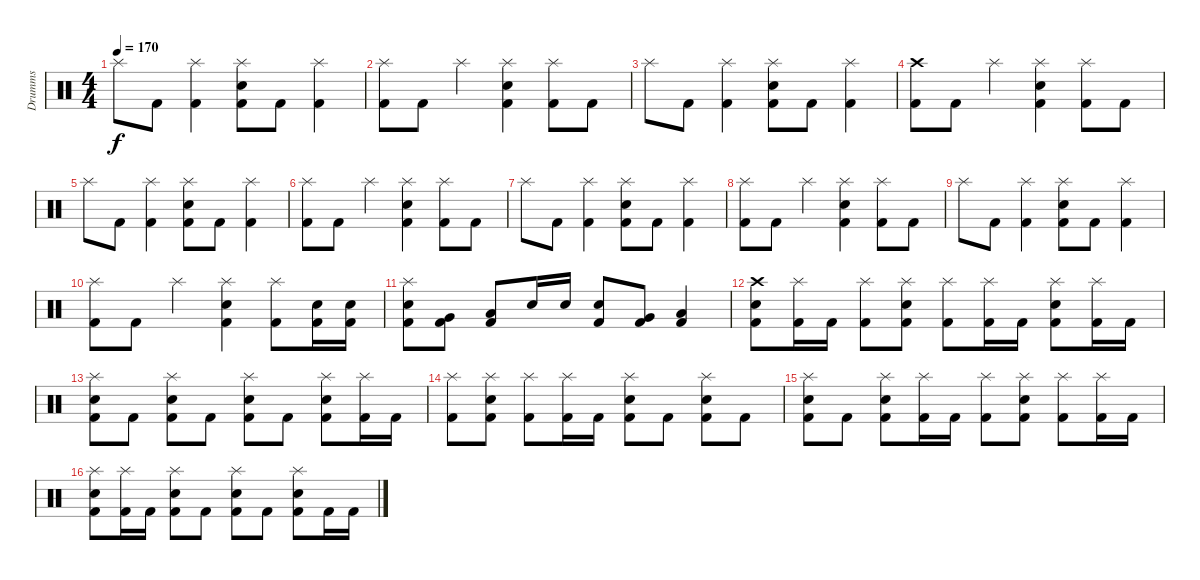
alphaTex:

\track ("Drumms" "Drumms") {instrument percussion}
\staff {score}
\articulation defaults
\ts (4 4)
\tempo 170
\clef neutral
\ks c "Splash (hit)".8{dy f} "Kick (hit) 2".8
("Kick (hit) 2" "Splash (hit)").4 ("Kick (hit) 2" "Snare (hit) 2" "Splash (hit)").8 "Kick (hit) 2".8 ("Kick (hit) 2" "Splash (hit)").4 |
("Kick (hit) 2" "Splash (hit)").8 "Kick (hit) 2".8 "Splash (hit)".4 ("Kick (hit) 2" "Snare (hit) 2" "Splash (hit)").4 ("Kick (hit) 2" "Splash (hit)").8 "Kick (hit) 2".8 |
"Splash (hit)".8 "Kick (hit) 2".8 ("Kick (hit) 2" "Splash (hit)").4 ("Kick (hit) 2" "Snare (hit) 2" "Splash (hit)").8 "Kick (hit) 2".8 ("Kick (hit) 2" "Splash (hit)").4 |
("Kick (hit) 2" "Crash high (hit)").8 "Kick (hit) 2".8 "Splash (hit)".4 ("Kick (hit) 2" "Snare (hit) 2" "Splash (hit)").4 ("Kick (hit) 2" "Splash (hit)").8 "Kick (hit) 2".8 |
"Splash (hit)".8 "Kick (hit) 2".8 ("Kick (hit) 2" "Splash (hit)").4 ("Kick (hit) 2" "Snare (hit) 2" "Splash (hit)").8 "Kick (hit) 2".8 ("Kick (hit) 2" "Splash (hit)").4 |
("Kick (hit) 2" "Splash (hit)").8 "Kick (hit) 2".8 "Splash (hit)".4 ("Kick (hit) 2" "Snare (hit) 2" "Splash (hit)").4 ("Kick (hit) 2" "Splash (hit)").8 "Kick (hit) 2".8 |
"Splash (hit)".8 "Kick (hit) 2".8 ("Kick (hit) 2" "Splash (hit)").4 ("Kick (hit) 2" "Snare (hit) 2" "Splash (hit)").8 "Kick (hit) 2".8 ("Kick (hit) 2" "Splash (hit)").4 |
("Kick (hit) 2" "Splash (hit)").8 "Kick (hit) 2".8 "Splash (hit)".4 ("Kick (hit) 2" "Snare (hit) 2" "Splash (hit)").4 ("Kick (hit) 2" "Splash (hit)").8 "Kick (hit) 2".8 |
"Splash (hit)".8 "Kick (hit) 2".8 ("Kick (hit) 2" "Splash (hit)").4 ("Kick (hit) 2" "Snare (hit) 2" "Splash (hit)").8 "Kick (hit) 2".8 ("Kick (hit) 2" "Splash (hit)").4 |
("Kick (hit) 2" "Splash (hit)").8 "Kick (hit) 2".8 "Splash (hit)".4 ("Kick (hit) 2" "Snare (hit) 2" "Splash (hit)").4 ("Kick (hit) 2" "Splash (hit)").8 ("Kick (hit) 2" "Snare (hit) 2").16 ("Kick (hit) 2" "Snare (hit) 2").16 |
("Kick (hit) 2" "Snare (hit) 2" "Splash (hit)").8 ("Kick (hit) 2" "Very Low Tom (hit)").8 ("Kick (hit) 2" "Low Tom (hit)").8 "Snare (hit) 2".16 "Snare (hit) 2".16 ("Kick (hit) 2" "Snare (hit) 2").8 ("Kick (hit) 2" "Very Low Tom (hit)").8 ("Kick (hit) 2" "Low Tom (hit)").4 |
("Kick (hit) 2" "Snare (hit) 2" "Crash high (hit)").8 ("Kick (hit) 2" "Splash (hit)").16 "Kick (hit) 2".16 ("Kick (hit) 2" "Splash (hit)").8 ("Kick (hit) 2" "Snare (hit) 2" "Splash (hit)").8 ("Kick (hit) 2" "Splash (hit)").8 ("Kick (hit) 2" "Splash (hit)").16 "Kick (hit) 2".16 ("Kick (hit) 2" "Snare (hit) 2" "Splash (hit)").8 ("Kick (hit) 2" "Splash (hit)").16 "Kick (hit) 2".16 |
("Kick (hit) 2" "Snare (hit) 2" "Splash (hit)").8 "Kick (hit) 2".8 ("Kick (hit) 2" "Snare (hit) 2" "Splash (hit)").8 "Kick (hit) 2".8 ("Kick (hit) 2" "Snare (hit) 2" "Splash (hit)").8 "Kick (hit) 2".8 ("Kick (hit) 2" "Snare (hit) 2" "Splash (hit)").8 ("Kick (hit) 2" "Splash (hit)").16 "Kick (hit) 2".16 |
("Kick (hit) 2" "Splash (hit)").8 ("Kick (hit) 2" "Snare (hit) 2" "Splash (hit)").8 ("Kick (hit) 2" "Splash (hit)").8 ("Kick (hit) 2" "Splash (hit)").16 "Kick (hit) 2".16 ("Kick (hit) 2" "Snare (hit) 2" "Splash (hit)").8 "Kick (hit) 2".8 ("Kick (hit) 2" "Snare (hit) 2" "Splash (hit)").8 "Kick (hit) 2".8 |
("Kick (hit) 2" "Snare (hit) 2" "Splash (hit)").8 "Kick (hit) 2".8 ("Kick (hit) 2" "Snare (hit) 2" "Splash (hit)").8 ("Kick (hit) 2" "Splash (hit)").16 "Kick (hit) 2".16 ("Kick (hit) 2" "Splash (hit)").8 ("Kick (hit) 2" "Snare (hit) 2" "Splash (hit)").8 ("Kick (hit) 2" "Splash (hit)").8 ("Kick (hit) 2" "Splash (hit)").16 "Kick (hit) 2".16 |
("Kick (hit) 2" "Snare (hit) 2" "Splash (hit)").8 ("Kick (hit) 2" "Splash (hit)").16 "Kick (hit) 2".16 ("Kick (hit) 2" "Snare (hit) 2" "Splash (hit)").8 "Kick (hit) 2".8 ("Kick (hit) 2" "Snare (hit) 2" "Splash (hit)").8 "Kick (hit) 2".8 ("Kick (hit) 2" "Snare (hit) 2" "Splash (hit)").8 "Kick (hit) 2".16 "Kick (hit) 2".16
